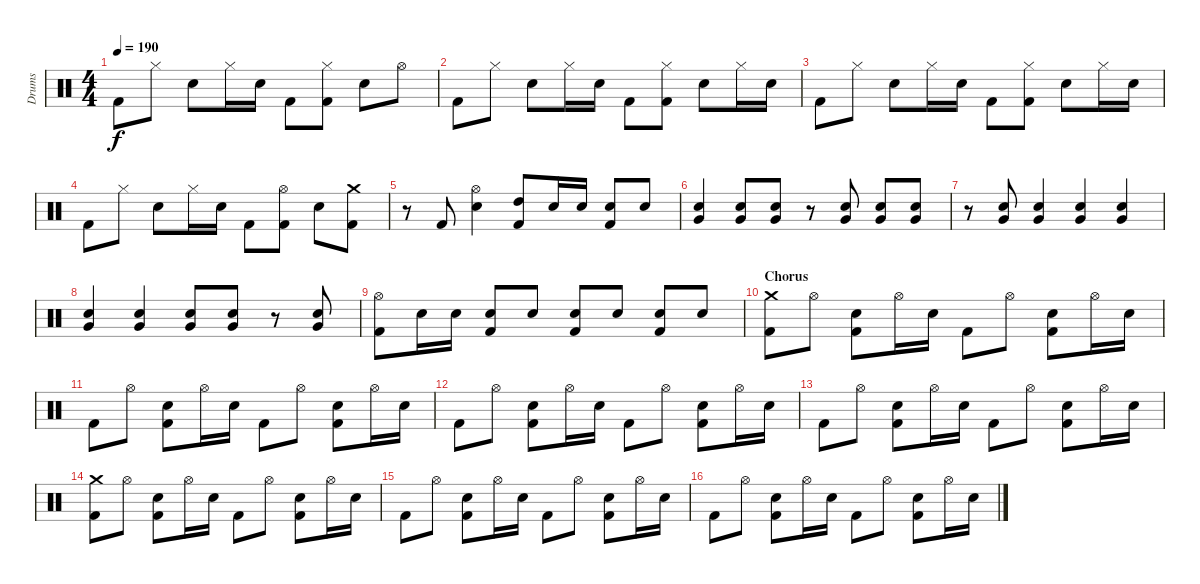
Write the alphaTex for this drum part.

\track ("Drums" "Drums") {instrument percussion}
\staff {score}
\articulation defaults
\ts (4 4)
\tempo 190
\clef neutral
\ks c "Kick (hit) 2".8{dy f} "Hi-Hat (closed)".8 "Snare (hit) 2".8 "Hi-Hat (closed)".16 "Snare (hit) 2".16 "Kick (hit) 2".8
("Hi-Hat (closed)" "Kick (hit) 2").8 "Snare (hit) 2".8 "Hi-Hat (open)".8 |
"Kick (hit) 2".8 "Hi-Hat (closed)".8 "Snare (hit) 2".8 "Hi-Hat (closed)".16 "Snare (hit) 2".16 "Kick (hit) 2".8 ("Hi-Hat (closed)" "Kick (hit) 2").8 "Snare (hit) 2".8 "Hi-Hat (closed)".16 "Snare (hit) 2".16 |
"Kick (hit) 2".8 "Hi-Hat (closed)".8 "Snare (hit) 2".8 "Hi-Hat (closed)".16 "Snare (hit) 2".16 "Kick (hit) 2".8 ("Hi-Hat (closed)" "Kick (hit) 2").8 "Snare (hit) 2".8 "Hi-Hat (closed)".16 "Snare (hit) 2".16 |
"Kick (hit) 2".8 "Hi-Hat (closed)".8 "Snare (hit) 2".8 "Hi-Hat (closed)".16 "Snare (hit) 2".16 "Kick (hit) 2".8 ("Hi-Hat (open)" "Kick (hit) 2").8 "Snare (hit) 2".8 ("Crash medium (hit)" "Kick (hit) 2").8 |
r.8 "Kick (hit) 2".8 ("Hi-Hat (open)" "Snare (hit) 2").4 ("High Tom (hit)" "Kick (hit) 2").8 "Snare (hit) 2".16 "Snare (hit) 2".16 ("Snare (hit) 2" "Kick (hit) 2").8 "Snare (hit) 2".8 |
("Snare (hit) 2" "Very Low Tom (hit)").4 ("Snare (hit) 2" "Very Low Tom (hit)").8 ("Snare (hit) 2" "Very Low Tom (hit)").8 r.8 ("Snare (hit) 2" "Very Low Tom (hit)").8 ("Snare (hit) 2" "Very Low Tom (hit)").8 ("Snare (hit) 2" "Very Low Tom (hit)").8 |
r.8 ("Snare (hit) 2" "Very Low Tom (hit)").8 ("Snare (hit) 2" "Very Low Tom (hit)").4 ("Snare (hit) 2" "Very Low Tom (hit)").4 ("Snare (hit) 2" "Very Low Tom (hit)").4 |
("Snare (hit) 2" "Very Low Tom (hit)").4 ("Snare (hit) 2" "Very Low Tom (hit)").4 ("Snare (hit) 2" "Very Low Tom (hit)").8 ("Snare (hit) 2" "Very Low Tom (hit)").8 r.8 ("Snare (hit) 2" "Very Low Tom (hit)").8 |
("Hi-Hat (open)" "Kick (hit) 2").8 "Snare (hit) 2".16 "Snare (hit) 2".16 ("Snare (hit) 2" "Kick (hit) 2").8 "Snare (hit) 2".8 ("Snare (hit) 2" "Kick (hit) 2").8 "Snare (hit) 2".8 ("Snare (hit) 2" "Kick (hit) 2").8 "Snare (hit) 2".8 |
\section ("" "Chorus")
("Crash medium (hit)" "Kick (hit) 2").8 "Hi-Hat (open)".8 ("Snare (hit) 2" "Kick (hit) 2").8 "Hi-Hat (open)".16 "Snare (hit) 2".16 "Kick (hit) 2".8 "Hi-Hat (open)".8 ("Snare (hit) 2" "Kick (hit) 2").8 "Hi-Hat (open)".16 "Snare (hit) 2".16 |
"Kick (hit) 2".8 "Hi-Hat (open)".8 ("Snare (hit) 2" "Kick (hit) 2").8 "Hi-Hat (open)".16 "Snare (hit) 2".16 "Kick (hit) 2".8 "Hi-Hat (open)".8 ("Snare (hit) 2" "Kick (hit) 2").8 "Hi-Hat (open)".16 "Snare (hit) 2".16 |
"Kick (hit) 2".8 "Hi-Hat (open)".8 ("Snare (hit) 2" "Kick (hit) 2").8 "Hi-Hat (open)".16 "Snare (hit) 2".16 "Kick (hit) 2".8 "Hi-Hat (open)".8 ("Snare (hit) 2" "Kick (hit) 2").8 "Hi-Hat (open)".16 "Snare (hit) 2".16 |
"Kick (hit) 2".8 "Hi-Hat (open)".8 ("Snare (hit) 2" "Kick (hit) 2").8 "Hi-Hat (open)".16 "Snare (hit) 2".16 "Kick (hit) 2".8 "Hi-Hat (open)".8 ("Snare (hit) 2" "Kick (hit) 2").8 "Hi-Hat (open)".16 "Snare (hit) 2".16 |
("Crash medium (hit)" "Kick (hit) 2").8 "Hi-Hat (open)".8 ("Snare (hit) 2" "Kick (hit) 2").8 "Hi-Hat (open)".16 "Snare (hit) 2".16 "Kick (hit) 2".8 "Hi-Hat (open)".8 ("Snare (hit) 2" "Kick (hit) 2").8 "Hi-Hat (open)".16 "Snare (hit) 2".16 |
"Kick (hit) 2".8 "Hi-Hat (open)".8 ("Snare (hit) 2" "Kick (hit) 2").8 "Hi-Hat (open)".16 "Snare (hit) 2".16 "Kick (hit) 2".8 "Hi-Hat (open)".8 ("Snare (hit) 2" "Kick (hit) 2").8 "Hi-Hat (open)".16 "Snare (hit) 2".16 |
"Kick (hit) 2".8 "Hi-Hat (open)".8 ("Snare (hit) 2" "Kick (hit) 2").8 "Hi-Hat (open)".16 "Snare (hit) 2".16 "Kick (hit) 2".8 "Hi-Hat (open)".8 ("Snare (hit) 2" "Kick (hit) 2").8 "Hi-Hat (open)".16 "Snare (hit) 2".16
